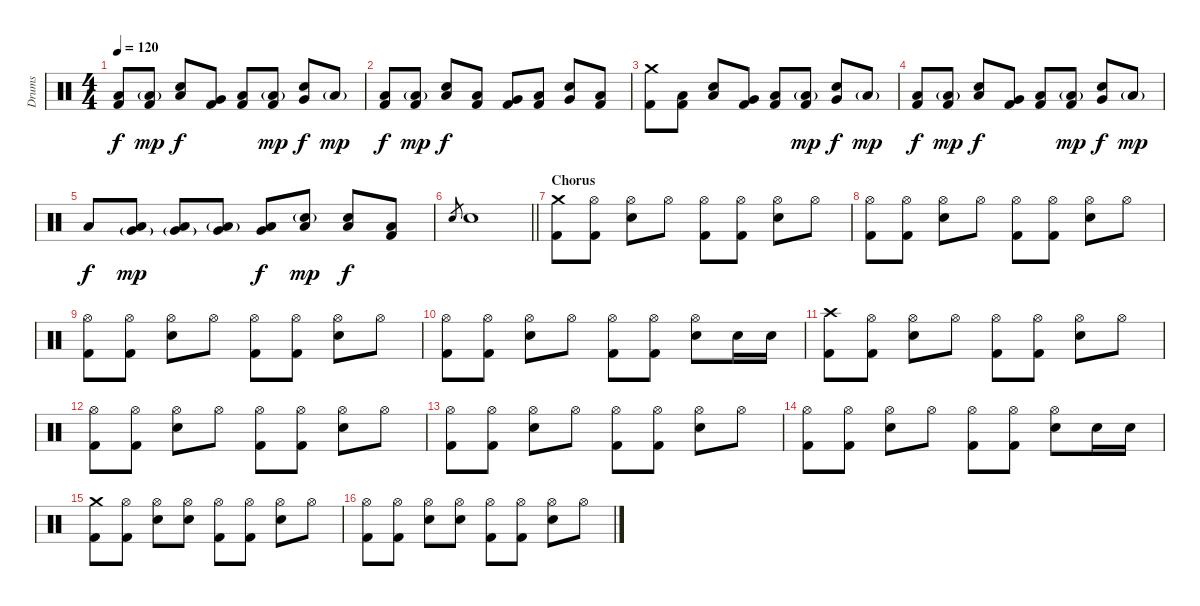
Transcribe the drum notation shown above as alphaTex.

\track ("Drums" "Drums") {instrument percussion}
\staff {score}
\articulation defaults
\ts (4 4)
\tempo 120
\clef neutral
\ks c
("Low Floor Tom (hit)" "Kick (hit) 2").8{dy f} ("Low Floor Tom (hit)"{g} "Kick (hit) 2").8{dy mp} ("Low Floor Tom (hit)" "Electric Snare (hit)").8{dy f} ("Very Low Tom (hit)" "Kick (hit) 2").8 ("Low Floor Tom (hit)" "Kick (hit) 2").8 ("Low Floor Tom (hit)"{g} "Kick (hit) 2").8{dy mp} ("Very Low Tom (hit)" "Electric Snare (hit)").8{dy f} "Low Floor Tom (hit)"{g}.8{dy mp} |
("Low Floor Tom (hit)" "Kick (hit) 2").8{dy f} ("Low Floor Tom (hit)"{g} "Kick (hit) 2").8{dy mp} ("Low Floor Tom (hit)" "Electric Snare (hit)").8{dy f} ("Low Tom (hit)" "Kick (hit) 2").8 ("Very Low Tom (hit)" "Kick (hit) 2").8 ("Low Floor Tom (hit)" "Kick (hit) 2").8 ("Very Low Tom (hit)" "Electric Snare (hit)").8 ("Low Floor Tom (hit)" "Kick (hit) 2").8 |
("Crash medium (hit)" "Kick (hit) 2").8 ("Low Floor Tom (hit)" "Kick (hit) 2").8 ("Low Floor Tom (hit)" "Electric Snare (hit)").8 ("Very Low Tom (hit)" "Kick (hit) 2").8 ("Low Floor Tom (hit)" "Kick (hit) 2").8 ("Low Floor Tom (hit)"{g} "Kick (hit) 2").8{dy mp} ("Very Low Tom (hit)" "Electric Snare (hit)").8{dy f} "Low Floor Tom (hit)"{g}.8{dy mp} |
("Low Floor Tom (hit)" "Kick (hit) 2").8{dy f} ("Low Floor Tom (hit)"{g} "Kick (hit) 2").8{dy mp} ("Low Floor Tom (hit)" "Electric Snare (hit)").8{dy f} ("Very Low Tom (hit)" "Kick (hit) 2").8 ("Low Floor Tom (hit)" "Kick (hit) 2").8 ("Low Floor Tom (hit)"{g} "Kick (hit) 2").8{dy mp} ("Very Low Tom (hit)" "Electric Snare (hit)").8{dy f} "Low Floor Tom (hit)"{g}.8{dy mp} |
"Low Floor Tom (hit)".8{dy f} ("Very Low Tom (hit)"{g} "Low Floor Tom (hit)").8{dy mp} ("Very Low Tom (hit)"{g} "Low Floor Tom (hit)").8 ("Very Low Tom (hit)" "Low Tom (hit)"{g}).8 ("Very Low Tom (hit)" "Low Tom (hit)").8{dy f} ("Electric Snare (hit)"{g} "Low Tom (hit)").8{dy mp} ("Electric Snare (hit)" "Low Tom (hit)").8{dy f} ("Low Tom (hit)" "Kick (hit) 2").8 |
\barLineRight lightlight "Electric Snare (hit)".8{gr} "Electric Snare (hit)".1
|
\section ("" "Chorus")
("Crash medium (hit)" "Kick (hit) 2").8 ("Hi-Hat (open)" "Kick (hit) 2").8 ("Hi-Hat (open)" "Electric Snare (hit)").8 "Hi-Hat (open)".8 ("Hi-Hat (open)" "Kick (hit) 2").8 ("Hi-Hat (open)" "Kick (hit) 2").8 ("Hi-Hat (open)" "Electric Snare (hit)").8 "Hi-Hat (open)".8 |
("Hi-Hat (open)" "Kick (hit) 2").8 ("Hi-Hat (open)" "Kick (hit) 2").8 ("Hi-Hat (open)" "Electric Snare (hit)").8 "Hi-Hat (open)".8 ("Hi-Hat (open)" "Kick (hit) 2").8 ("Hi-Hat (open)" "Kick (hit) 2").8 ("Hi-Hat (open)" "Electric Snare (hit)").8 "Hi-Hat (open)".8 |
("Hi-Hat (open)" "Kick (hit) 2").8 ("Hi-Hat (open)" "Kick (hit) 2").8 ("Hi-Hat (open)" "Electric Snare (hit)").8 "Hi-Hat (open)".8 ("Hi-Hat (open)" "Kick (hit) 2").8 ("Hi-Hat (open)" "Kick (hit) 2").8 ("Hi-Hat (open)" "Electric Snare (hit)").8 "Hi-Hat (open)".8 |
("Hi-Hat (open)" "Kick (hit) 2").8 ("Hi-Hat (open)" "Kick (hit) 2").8 ("Hi-Hat (open)" "Electric Snare (hit)").8 "Hi-Hat (open)".8 ("Hi-Hat (open)" "Kick (hit) 2").8 ("Hi-Hat (open)" "Kick (hit) 2").8 ("Hi-Hat (open)" "Electric Snare (hit)").8 "Electric Snare (hit)".16 "Electric Snare (hit)".16 |
("Crash high (hit)" "Kick (hit) 2").8 ("Hi-Hat (open)" "Kick (hit) 2").8 ("Hi-Hat (open)" "Electric Snare (hit)").8 "Hi-Hat (open)".8 ("Hi-Hat (open)" "Kick (hit) 2").8 ("Hi-Hat (open)" "Kick (hit) 2").8 ("Hi-Hat (open)" "Electric Snare (hit)").8 "Hi-Hat (open)".8 |
("Hi-Hat (open)" "Kick (hit) 2").8 ("Hi-Hat (open)" "Kick (hit) 2").8 ("Hi-Hat (open)" "Electric Snare (hit)").8 "Hi-Hat (open)".8 ("Hi-Hat (open)" "Kick (hit) 2").8 ("Hi-Hat (open)" "Kick (hit) 2").8 ("Hi-Hat (open)" "Electric Snare (hit)").8 "Hi-Hat (open)".8 |
("Hi-Hat (open)" "Kick (hit) 2").8 ("Hi-Hat (open)" "Kick (hit) 2").8 ("Hi-Hat (open)" "Electric Snare (hit)").8 "Hi-Hat (open)".8 ("Hi-Hat (open)" "Kick (hit) 2").8 ("Hi-Hat (open)" "Kick (hit) 2").8 ("Hi-Hat (open)" "Electric Snare (hit)").8 "Hi-Hat (open)".8 |
("Hi-Hat (open)" "Kick (hit) 2").8 ("Hi-Hat (open)" "Kick (hit) 2").8 ("Hi-Hat (open)" "Electric Snare (hit)").8 "Hi-Hat (open)".8 ("Hi-Hat (open)" "Kick (hit) 2").8 ("Hi-Hat (open)" "Kick (hit) 2").8 ("Hi-Hat (open)" "Electric Snare (hit)").8 "Electric Snare (hit)".16 "Electric Snare (hit)".16 |
("Crash medium (hit)" "Kick (hit) 2").8 ("Hi-Hat (open)" "Kick (hit) 2").8 ("Hi-Hat (open)" "Electric Snare (hit)").8 ("Hi-Hat (open)" "Electric Snare (hit)").8 ("Hi-Hat (open)" "Kick (hit) 2").8 ("Hi-Hat (open)" "Kick (hit) 2").8 ("Hi-Hat (open)" "Electric Snare (hit)").8 "Hi-Hat (open)".8 |
("Hi-Hat (open)" "Kick (hit) 2").8 ("Hi-Hat (open)" "Kick (hit) 2").8 ("Hi-Hat (open)" "Electric Snare (hit)").8 ("Hi-Hat (open)" "Electric Snare (hit)").8 ("Hi-Hat (open)" "Kick (hit) 2").8 ("Hi-Hat (open)" "Kick (hit) 2").8 ("Hi-Hat (open)" "Electric Snare (hit)").8 "Hi-Hat (open)".8
